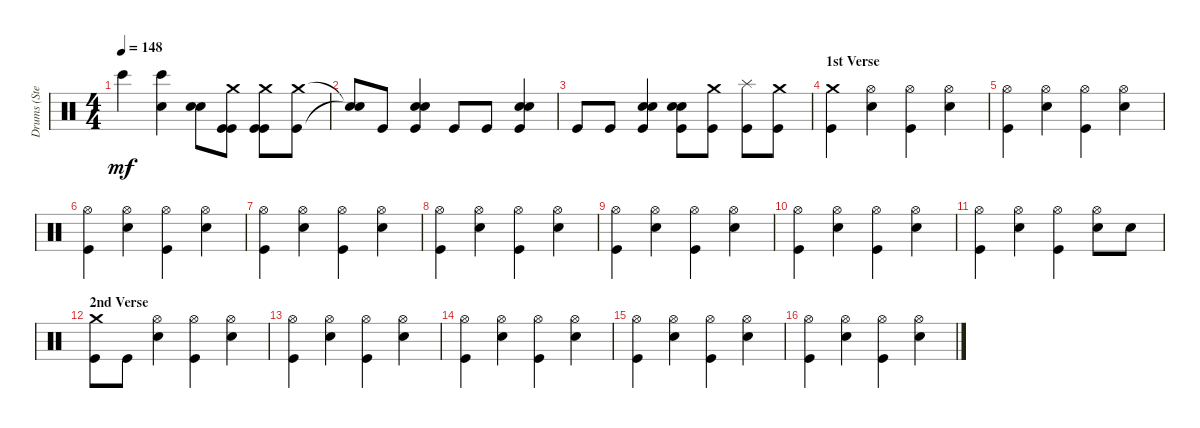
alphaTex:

\track ("Drums (Steven)" "Drums (Ste") {instrument percussion}
\staff {score}
\articulation defaults
\ts (4 4)
\tempo 148
\clef neutral
\ks c "Bongo High (hit)".4{dy mf}
("Snare (hit) 2" "Bongo High (hit)").4 ("Snare (hit) 2" "Snare (hit) 2").8 ("Kick (hit)" "Crash medium (hit)" "Kick (hit)").8 ("Kick (hit)" "Crash medium (hit)" "Kick (hit)").8 ("Crash medium (hit)" "Kick (hit)").8 |
("Snare (hit)"{t} "Snare (hit)"{t}).8 "Kick (hit)".8 ("Snare (hit) 2" "Kick (hit)" "Snare (hit) 2").4 "Kick (hit)".8 "Kick (hit)".8 ("Snare (hit) 2" "Kick (hit)" "Snare (hit) 2").4 |
"Kick (hit)".8 "Kick (hit)".8 ("Snare (hit) 2" "Kick (hit)" "Snare (hit) 2").4 ("Snare (hit) 2" "Kick (hit)" "Snare (hit) 2").8 ("Kick (hit)" "Crash medium (hit)").8 ("Kick (hit)" "Splash (hit)").8 ("Kick (hit)" "Crash medium (hit)").8 |
\section ("" "1st Verse")
("Kick (hit)" "Crash medium (hit)").4 ("Snare (hit) 2" "Hi-Hat (open)").4 ("Kick (hit)" "Hi-Hat (open)").4 ("Snare (hit) 2" "Hi-Hat (open)").4 |
("Kick (hit)" "Hi-Hat (open)").4 ("Snare (hit) 2" "Hi-Hat (open)").4 ("Kick (hit)" "Hi-Hat (open)").4 ("Snare (hit) 2" "Hi-Hat (open)").4 |
("Kick (hit)" "Hi-Hat (open)").4 ("Snare (hit) 2" "Hi-Hat (open)").4 ("Kick (hit)" "Hi-Hat (open)").4 ("Snare (hit) 2" "Hi-Hat (open)").4 |
("Kick (hit)" "Hi-Hat (open)").4 ("Snare (hit) 2" "Hi-Hat (open)").4 ("Kick (hit)" "Hi-Hat (open)").4 ("Snare (hit) 2" "Hi-Hat (open)").4 |
("Kick (hit)" "Hi-Hat (open)").4 ("Snare (hit) 2" "Hi-Hat (open)").4 ("Kick (hit)" "Hi-Hat (open)").4 ("Snare (hit) 2" "Hi-Hat (open)").4 |
("Kick (hit)" "Hi-Hat (open)").4 ("Snare (hit) 2" "Hi-Hat (open)").4 ("Kick (hit)" "Hi-Hat (open)").4 ("Snare (hit) 2" "Hi-Hat (open)").4 |
("Kick (hit)" "Hi-Hat (open)").4 ("Snare (hit) 2" "Hi-Hat (open)").4 ("Kick (hit)" "Hi-Hat (open)").4 ("Snare (hit) 2" "Hi-Hat (open)").4 |
("Kick (hit)" "Hi-Hat (open)").4 ("Snare (hit) 2" "Hi-Hat (open)").4 ("Kick (hit)" "Hi-Hat (open)").4 ("Snare (hit) 2" "Hi-Hat (open)").8 "Snare (hit) 2".8 |
\section ("" "2nd Verse")
("Kick (hit)" "Crash medium (hit)").8 "Kick (hit)".8 ("Snare (hit) 2" "Hi-Hat (open)").4 ("Kick (hit)" "Hi-Hat (open)").4 ("Snare (hit) 2" "Hi-Hat (open)").4 |
("Kick (hit)" "Hi-Hat (open)").4 ("Snare (hit) 2" "Hi-Hat (open)").4 ("Kick (hit)" "Hi-Hat (open)").4 ("Snare (hit) 2" "Hi-Hat (open)").4 |
("Kick (hit)" "Hi-Hat (open)").4 ("Snare (hit) 2" "Hi-Hat (open)").4 ("Kick (hit)" "Hi-Hat (open)").4 ("Snare (hit) 2" "Hi-Hat (open)").4 |
("Kick (hit)" "Hi-Hat (open)").4 ("Snare (hit) 2" "Hi-Hat (open)").4 ("Kick (hit)" "Hi-Hat (open)").4 ("Snare (hit) 2" "Hi-Hat (open)").4 |
("Kick (hit)" "Hi-Hat (open)").4 ("Snare (hit) 2" "Hi-Hat (open)").4 ("Kick (hit)" "Hi-Hat (open)").4 ("Snare (hit) 2" "Hi-Hat (open)").4
